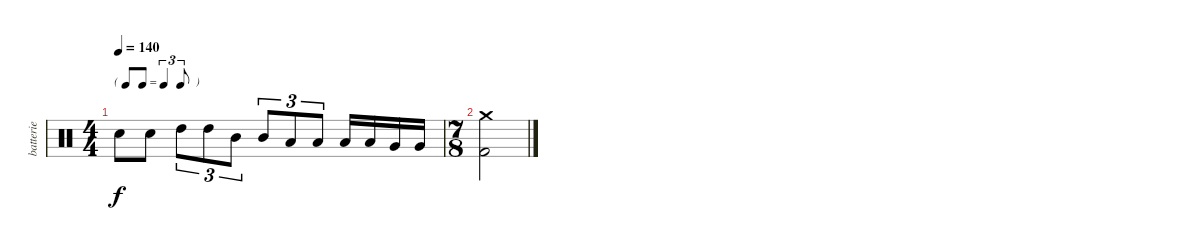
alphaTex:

\track ("batterie" "batterie") {instrument percussion}
\staff {score}
\articulation defaults
\ts (4 4)
\tf triplet8th
\tempo 140
\clef neutral
\ks c "Electric Snare (hit)".8{dy f} "Electric Snare (hit)".8 "High Tom (hit)".8{tu (3 2)} "High Tom (hit)".8{tu (3 2)} "Mid Tom (hit)".8{tu (3 2)} "Mid Tom (hit)".8{tu (3 2)} "Low Tom (hit)".8{tu (3 2)} "Low Tom (hit)".8{tu (3 2)} "Low Tom (hit)".16 "Low Tom (hit)".16 "Very Low Tom (hit)".16 "Very Low Tom (hit)".16
|
\ts (7 8)
("Crash medium (hit)" "Kick (hit) 2").2
